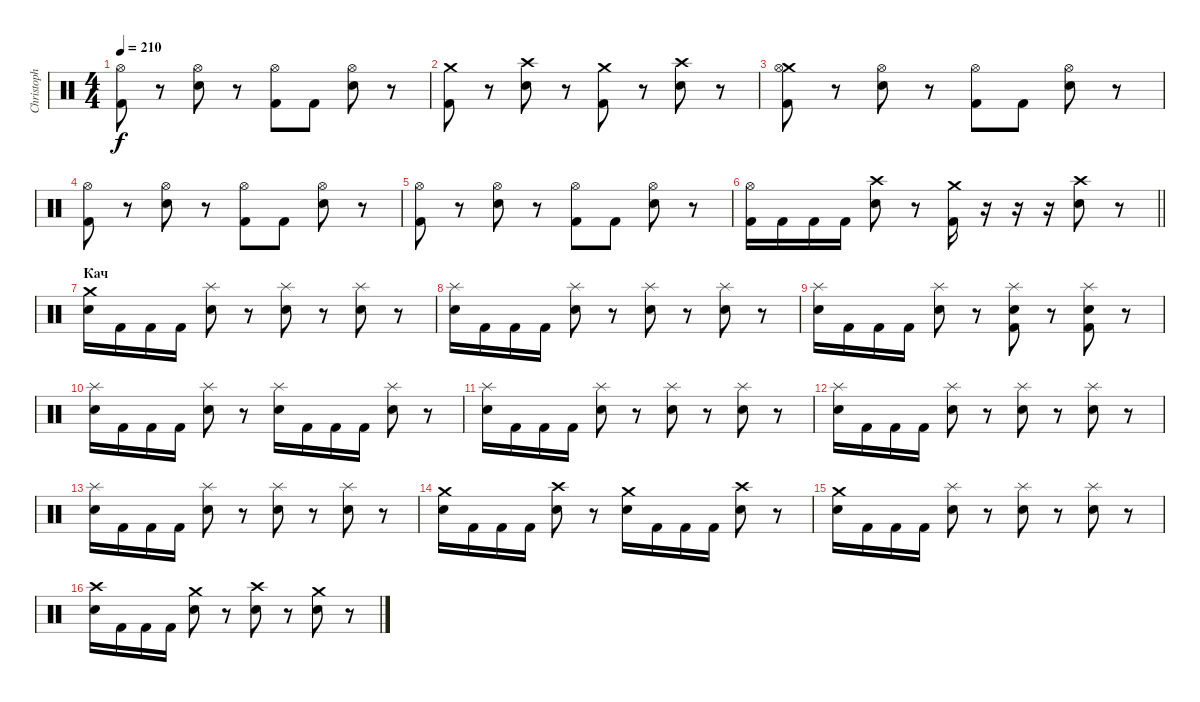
\track ("Christoph Schneider" "Christoph ") {instrument percussion}
\staff {score}
\articulation defaults
\ts (4 4)
\tempo 210
\clef neutral
\ks c
("Hi-Hat (open)" "Kick (hit) 2").8{dy f} r.8 ("Hi-Hat (open)" "Electric Snare (hit)").8 r.8 ("Hi-Hat (open)" "Kick (hit) 2").8 "Kick (hit) 2".8 ("Hi-Hat (open)" "Electric Snare (hit)").8 r.8 |
("Crash medium (hit)" "Kick (hit) 2").8 r.8 ("Crash high (hit)" "Electric Snare (hit)").8 r.8 ("Crash medium (hit)" "Kick (hit) 2").8 r.8 ("Crash high (hit)" "Electric Snare (hit)").8 r.8 |
("Crash medium (hit)" "Kick (hit) 2" "Hi-Hat (open)").8 r.8 ("Hi-Hat (open)" "Electric Snare (hit)").8 r.8 ("Hi-Hat (open)" "Kick (hit) 2").8 "Kick (hit) 2".8 ("Hi-Hat (open)" "Electric Snare (hit)").8 r.8 |
("Hi-Hat (open)" "Kick (hit) 2").8 r.8 ("Hi-Hat (open)" "Electric Snare (hit)").8 r.8 ("Hi-Hat (open)" "Kick (hit) 2").8 "Kick (hit) 2".8 ("Hi-Hat (open)" "Electric Snare (hit)").8 r.8 |
("Hi-Hat (open)" "Kick (hit) 2").8 r.8 ("Hi-Hat (open)" "Electric Snare (hit)").8 r.8 ("Hi-Hat (open)" "Kick (hit) 2").8 "Kick (hit) 2".8 ("Hi-Hat (open)" "Electric Snare (hit)").8 r.8 |
\barLineRight lightlight
("Hi-Hat (open)" "Kick (hit) 2").16 "Kick (hit) 2".16 "Kick (hit) 2".16 "Kick (hit) 2".16 ("Crash high (hit)" "Electric Snare (hit)").8 r.8 ("Crash medium (hit)" "Kick (hit) 2").16 r.16 r.16 r.16 ("Crash high (hit)" "Electric Snare (hit)").8 r.8 |
\section ("" "Кач")
("Crash medium (hit)" "Electric Snare (hit)").16 "Kick (hit) 2".16 "Kick (hit) 2".16 "Kick (hit) 2".16 ("Splash (hit)" "Electric Snare (hit)").8 r.8 ("Splash (hit)" "Electric Snare (hit)").8 r.8 ("Splash (hit)" "Electric Snare (hit)").8 r.8 |
("Splash (hit)" "Electric Snare (hit)").16 "Kick (hit) 2".16 "Kick (hit) 2".16 "Kick (hit) 2".16 ("Splash (hit)" "Electric Snare (hit)").8 r.8 ("Splash (hit)" "Electric Snare (hit)").8 r.8 ("Splash (hit)" "Electric Snare (hit)").8 r.8 |
("Splash (hit)" "Electric Snare (hit)").16 "Kick (hit) 2".16 "Kick (hit) 2".16 "Kick (hit) 2".16 ("Splash (hit)" "Electric Snare (hit)").8 r.8 ("Splash (hit)" "Electric Snare (hit)" "Kick (hit) 2").8 r.8 ("Splash (hit)" "Electric Snare (hit)" "Kick (hit) 2").8 r.8 |
("Splash (hit)" "Electric Snare (hit)").16 "Kick (hit) 2".16 "Kick (hit) 2".16 "Kick (hit) 2".16 ("Splash (hit)" "Electric Snare (hit)").8 r.8 ("Splash (hit)" "Electric Snare (hit)").16 "Kick (hit) 2".16 "Kick (hit) 2".16 "Kick (hit) 2".16 ("Splash (hit)" "Electric Snare (hit)").8 r.8 |
("Splash (hit)" "Electric Snare (hit)").16 "Kick (hit) 2".16 "Kick (hit) 2".16 "Kick (hit) 2".16 ("Splash (hit)" "Electric Snare (hit)").8 r.8 ("Splash (hit)" "Electric Snare (hit)").8 r.8 ("Splash (hit)" "Electric Snare (hit)").8 r.8 |
("Splash (hit)" "Electric Snare (hit)").16 "Kick (hit) 2".16 "Kick (hit) 2".16 "Kick (hit) 2".16 ("Splash (hit)" "Electric Snare (hit)").8 r.8 ("Splash (hit)" "Electric Snare (hit)").8 r.8 ("Splash (hit)" "Electric Snare (hit)").8 r.8 |
("Splash (hit)" "Electric Snare (hit)").16 "Kick (hit) 2".16 "Kick (hit) 2".16 "Kick (hit) 2".16 ("Splash (hit)" "Electric Snare (hit)").8 r.8 ("Splash (hit)" "Electric Snare (hit)").8 r.8 ("Splash (hit)" "Electric Snare (hit)").8 r.8 |
("Crash medium (hit)" "Electric Snare (hit)").16 "Kick (hit) 2".16 "Kick (hit) 2".16 "Kick (hit) 2".16 ("Crash high (hit)" "Electric Snare (hit)").8 r.8 ("Crash medium (hit)" "Electric Snare (hit)").16 "Kick (hit) 2".16 "Kick (hit) 2".16 "Kick (hit) 2".16 ("Crash high (hit)" "Electric Snare (hit)").8 r.8 |
("Crash medium (hit)" "Electric Snare (hit)").16 "Kick (hit) 2".16 "Kick (hit) 2".16 "Kick (hit) 2".16 ("Splash (hit)" "Electric Snare (hit)").8 r.8 ("Splash (hit)" "Electric Snare (hit)").8 r.8 ("Splash (hit)" "Electric Snare (hit)").8 r.8 |
("Crash high (hit)" "Electric Snare (hit)").16 "Kick (hit) 2".16 "Kick (hit) 2".16 "Kick (hit) 2".16 ("Crash medium (hit)" "Electric Snare (hit)").8 r.8 ("Crash high (hit)" "Electric Snare (hit)").8 r.8 ("Crash medium (hit)" "Electric Snare (hit)").8 r.8
